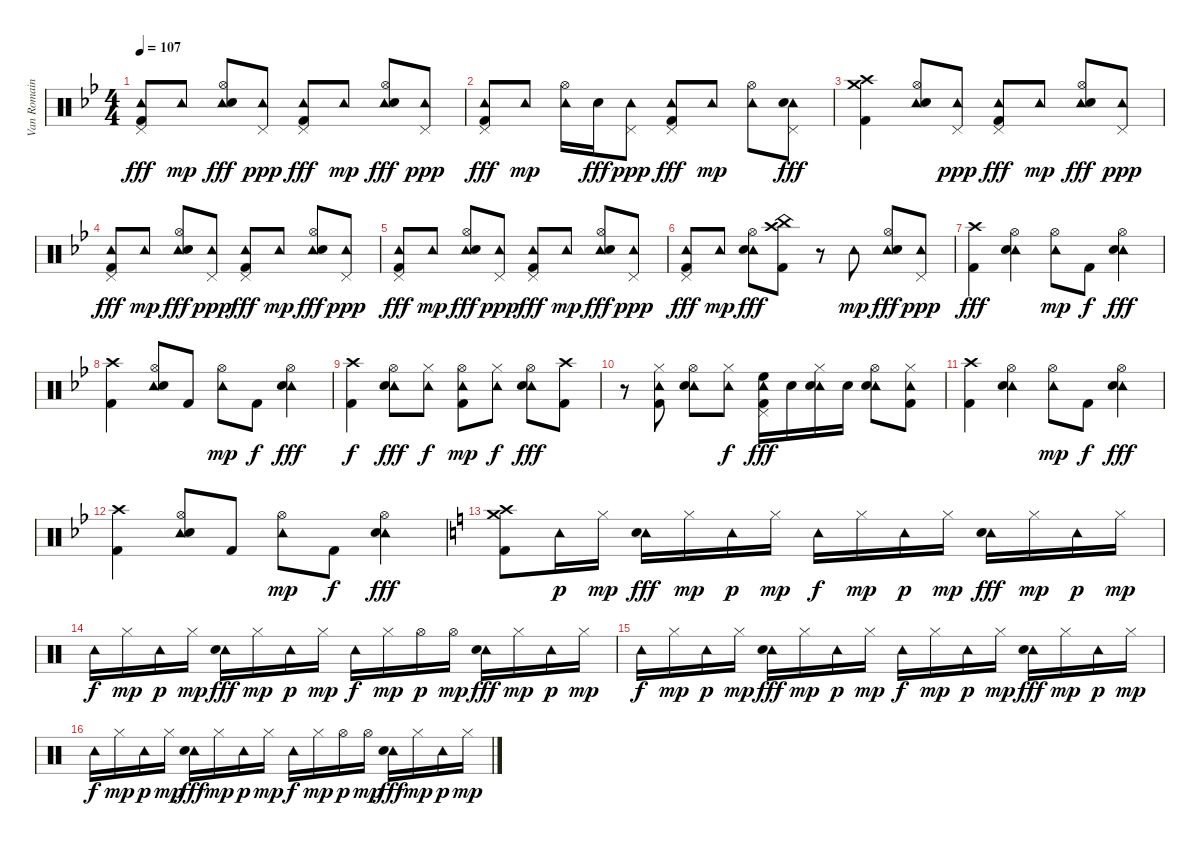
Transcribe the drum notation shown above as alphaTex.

\track ("Van Romaine" "Van Romain") {instrument percussion}
\staff {score}
\articulation defaults
\ts (4 4)
\tempo 107
\clef neutral
\ks bb
("Tambourine (hit)" "Pedal Hi-Hat (hit)" "Kick (hit) 2").8{dy fff} "Tambourine (hit)".8{dy mp} ("Tambourine (hit)" "Hi-Hat (open)" "Electric Snare (hit)").8{dy fff} ("Tambourine (hit)" "Pedal Hi-Hat (hit)").8{dy ppp} ("Tambourine (hit)" "Pedal Hi-Hat (hit)" "Kick (hit) 2").8{dy fff} "Tambourine (hit)".8{dy mp} ("Tambourine (hit)" "Hi-Hat (open)" "Electric Snare (hit)").8{dy fff} ("Tambourine (hit)" "Pedal Hi-Hat (hit)").8{dy ppp} |
("Tambourine (hit)" "Pedal Hi-Hat (hit)" "Kick (hit) 2").8{dy fff} "Tambourine (hit)".8{dy mp} ("Tambourine (hit)" "Hi-Hat (open)").16 "Electric Snare (hit)".16{dy fff} ("Tambourine (hit)" "Pedal Hi-Hat (hit)").8{dy ppp} ("Tambourine (hit)" "Pedal Hi-Hat (hit)" "Kick (hit) 2").8{dy fff} "Tambourine (hit)".8{dy mp} ("Tambourine (hit)" "Hi-Hat (open)").8 ("Tambourine (hit)" "Pedal Hi-Hat (hit)" "Electric Snare (hit)").8{dy fff} |
("Crash high (hit)" "Crash medium (hit)" "Kick (hit) 2").4 ("Tambourine (hit)" "Hi-Hat (open)" "Electric Snare (hit)").8 ("Tambourine (hit)" "Pedal Hi-Hat (hit)").8{dy ppp} ("Tambourine (hit)" "Pedal Hi-Hat (hit)" "Kick (hit) 2").8{dy fff} "Tambourine (hit)".8{dy mp} ("Tambourine (hit)" "Hi-Hat (open)" "Electric Snare (hit)").8{dy fff} ("Tambourine (hit)" "Pedal Hi-Hat (hit)").8{dy ppp} |
("Tambourine (hit)" "Pedal Hi-Hat (hit)" "Kick (hit) 2").8{dy fff} "Tambourine (hit)".8{dy mp} ("Tambourine (hit)" "Hi-Hat (open)" "Electric Snare (hit)").8{dy fff} ("Tambourine (hit)" "Pedal Hi-Hat (hit)").8{dy ppp} ("Tambourine (hit)" "Pedal Hi-Hat (hit)" "Kick (hit) 2").8{dy fff} "Tambourine (hit)".8{dy mp} ("Tambourine (hit)" "Hi-Hat (open)" "Electric Snare (hit)").8{dy fff} ("Tambourine (hit)" "Pedal Hi-Hat (hit)").8{dy ppp} |
("Tambourine (hit)" "Pedal Hi-Hat (hit)" "Kick (hit) 2").8{dy fff} "Tambourine (hit)".8{dy mp} ("Tambourine (hit)" "Hi-Hat (open)" "Electric Snare (hit)").8{dy fff} ("Tambourine (hit)" "Pedal Hi-Hat (hit)").8{dy ppp} ("Tambourine (hit)" "Pedal Hi-Hat (hit)" "Kick (hit) 2").8{dy fff} "Tambourine (hit)".8{dy mp} ("Tambourine (hit)" "Hi-Hat (open)" "Electric Snare (hit)").8{dy fff} ("Tambourine (hit)" "Pedal Hi-Hat (hit)").8{dy ppp} |
("Tambourine (hit)" "Pedal Hi-Hat (hit)" "Kick (hit) 2").8{dy fff} "Tambourine (hit)".8{dy mp} ("Tambourine (hit)" "Hi-Hat (open)" "Electric Snare (hit)").8{dy fff} ("China (hit)" "Crash high (hit)" "Kick (hit) 2").8 r.8 "Tambourine (hit)".8{dy mp} ("Tambourine (hit)" "Hi-Hat (open)" "Electric Snare (hit)").8{dy fff} ("Tambourine (hit)" "Pedal Hi-Hat (hit)").8{dy ppp} |
("Crash high (hit)" "Kick (hit) 2").4{dy fff} ("Hi-Hat (open)" "Tambourine (hit)" "Electric Snare (hit)").4 ("Hi-Hat (open)" "Tambourine (hit)").8{dy mp} "Kick (hit) 2".8{dy f} ("Hi-Hat (open)" "Tambourine (hit)" "Electric Snare (hit)").4{dy fff} |
("Crash high (hit)" "Kick (hit) 2").4 ("Hi-Hat (open)" "Tambourine (hit)" "Electric Snare (hit)").8 "Kick (hit) 2".8 ("Hi-Hat (open)" "Tambourine (hit)").8{dy mp} "Kick (hit) 2".8{dy f} ("Hi-Hat (open)" "Tambourine (hit)" "Electric Snare (hit)").4{dy fff} |
("Crash high (hit)" "Kick (hit) 2").4{dy f} ("Hi-Hat (open)" "Tambourine (hit)" "Electric Snare (hit)").8{dy fff} ("Hi-Hat (closed)" "Tambourine (hit)").8{dy f} ("Hi-Hat (open)" "Tambourine (hit)" "Kick (hit) 2").8{dy mp} ("Hi-Hat (closed)" "Tambourine (hit)").8{dy f} ("Hi-Hat (open)" "Tambourine (hit)" "Electric Snare (hit)").8{dy fff} ("Crash high (hit)" "Kick (hit) 2").8 |
r.8 ("Hi-Hat (closed)" "Tambourine (hit)" "Kick (hit) 2").8 ("Hi-Hat (open)" "Tambourine (hit)" "Electric Snare (hit)").8 ("Hi-Hat (closed)" "Tambourine (hit)").8{dy f} ("Pedal Hi-Hat (hit)" "Tambourine (hit)" "High Floor Tom (hit)" "Kick (hit) 2").16{dy fff} "Electric Snare (hit)".16 ("Hi-Hat (closed)" "Tambourine (hit)" "Electric Snare (hit)").16 "Electric Snare (hit)".16 ("Hi-Hat (open)" "Tambourine (hit)" "Electric Snare (hit)").8 ("Hi-Hat (closed)" "Tambourine (hit)" "Kick (hit) 2").8 |
("Crash high (hit)" "Kick (hit) 2").4 ("Hi-Hat (open)" "Tambourine (hit)" "Electric Snare (hit)").4 ("Hi-Hat (open)" "Tambourine (hit)").8{dy mp} "Kick (hit) 2".8{dy f} ("Hi-Hat (open)" "Tambourine (hit)" "Electric Snare (hit)").4{dy fff} |
("Crash high (hit)" "Kick (hit) 2").4 ("Hi-Hat (open)" "Tambourine (hit)" "Electric Snare (hit)").8 "Kick (hit) 2".8 ("Hi-Hat (open)" "Tambourine (hit)").8{dy mp} "Kick (hit) 2".8{dy f} ("Hi-Hat (open)" "Tambourine (hit)" "Electric Snare (hit)").4{dy fff} |
\ks c
("Crash medium (hit)" "Crash high (hit)" "Kick (hit) 2").8 "Tambourine (hit)".16{dy p} "Hi-Hat (closed)".16{dy mp} ("Tambourine (hit)" "Electric Snare (hit)").16{dy fff} "Hi-Hat (closed)".16{dy mp} "Tambourine (hit)".16{dy p} "Hi-Hat (closed)".16{dy mp} "Tambourine (hit)".16{dy f} "Hi-Hat (closed)".16{dy mp} "Tambourine (hit)".16{dy p} "Hi-Hat (closed)".16{dy mp} ("Tambourine (hit)" "Electric Snare (hit)").16{dy fff} "Hi-Hat (closed)".16{dy mp} "Tambourine (hit)".16{dy p} "Hi-Hat (closed)".16{dy mp} |
"Tambourine (hit)".16{dy f} "Hi-Hat (closed)".16{dy mp} "Tambourine (hit)".16{dy p} "Hi-Hat (closed)".16{dy mp} ("Tambourine (hit)" "Electric Snare (hit)").16{dy fff} "Hi-Hat (closed)".16{dy mp} "Tambourine (hit)".16{dy p} "Hi-Hat (closed)".16{dy mp} "Tambourine (hit)".16{dy f} "Hi-Hat (closed)".16{dy mp} "Hi-Hat (open)".16{dy p} "Hi-Hat (open)".16{dy mp} ("Tambourine (hit)" "Electric Snare (hit)").16{dy fff} "Hi-Hat (closed)".16{dy mp} "Tambourine (hit)".16{dy p} "Hi-Hat (closed)".16{dy mp} |
"Tambourine (hit)".16{dy f} "Hi-Hat (closed)".16{dy mp} "Tambourine (hit)".16{dy p} "Hi-Hat (closed)".16{dy mp} ("Tambourine (hit)" "Electric Snare (hit)").16{dy fff} "Hi-Hat (closed)".16{dy mp} "Tambourine (hit)".16{dy p} "Hi-Hat (closed)".16{dy mp} "Tambourine (hit)".16{dy f} "Hi-Hat (closed)".16{dy mp} "Tambourine (hit)".16{dy p} "Hi-Hat (closed)".16{dy mp} ("Tambourine (hit)" "Electric Snare (hit)").16{dy fff} "Hi-Hat (closed)".16{dy mp} "Tambourine (hit)".16{dy p} "Hi-Hat (closed)".16{dy mp} |
"Tambourine (hit)".16{dy f} "Hi-Hat (closed)".16{dy mp} "Tambourine (hit)".16{dy p} "Hi-Hat (closed)".16{dy mp} ("Tambourine (hit)" "Electric Snare (hit)").16{dy fff} "Hi-Hat (closed)".16{dy mp} "Tambourine (hit)".16{dy p} "Hi-Hat (closed)".16{dy mp} "Tambourine (hit)".16{dy f} "Hi-Hat (closed)".16{dy mp} "Hi-Hat (open)".16{dy p} "Hi-Hat (open)".16{dy mp} ("Tambourine (hit)" "Electric Snare (hit)").16{dy fff} "Hi-Hat (closed)".16{dy mp} "Tambourine (hit)".16{dy p} "Hi-Hat (closed)".16{dy mp}
